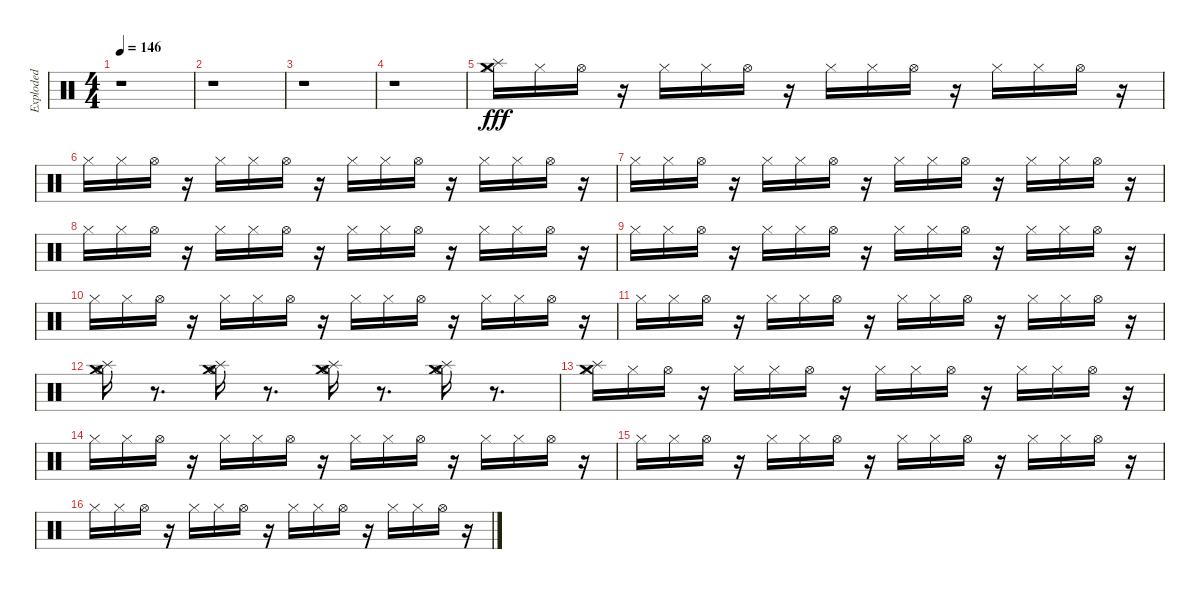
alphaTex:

\track ("Exploded" "Exploded") {instrument percussion}
\staff {score}
\articulation defaults
\ts (4 4)
\tempo 146
\clef neutral
\ks c
r.1{dy fff} |
r.1 |
r.1 |
r.1 |
("Hi-Hat (closed)" "Crash medium (hit)" "Splash (hit)").16 "Hi-Hat (closed)".16 "Hi-Hat (open)".16 r.16 "Hi-Hat (closed)".16 "Hi-Hat (closed)".16 "Hi-Hat (open)".16 r.16 "Hi-Hat (closed)".16 "Hi-Hat (closed)".16 "Hi-Hat (open)".16 r.16 "Hi-Hat (closed)".16 "Hi-Hat (closed)".16 "Hi-Hat (open)".16 r.16 |
"Hi-Hat (closed)".16 "Hi-Hat (closed)".16 "Hi-Hat (open)".16 r.16 "Hi-Hat (closed)".16 "Hi-Hat (closed)".16 "Hi-Hat (open)".16 r.16 "Hi-Hat (closed)".16 "Hi-Hat (closed)".16 "Hi-Hat (open)".16 r.16 "Hi-Hat (closed)".16 "Hi-Hat (closed)".16 "Hi-Hat (open)".16 r.16 |
"Hi-Hat (closed)".16 "Hi-Hat (closed)".16 "Hi-Hat (open)".16 r.16 "Hi-Hat (closed)".16 "Hi-Hat (closed)".16 "Hi-Hat (open)".16 r.16 "Hi-Hat (closed)".16 "Hi-Hat (closed)".16 "Hi-Hat (open)".16 r.16 "Hi-Hat (closed)".16 "Hi-Hat (closed)".16 "Hi-Hat (open)".16 r.16 |
"Hi-Hat (closed)".16 "Hi-Hat (closed)".16 "Hi-Hat (open)".16 r.16 "Hi-Hat (closed)".16 "Hi-Hat (closed)".16 "Hi-Hat (open)".16 r.16 "Hi-Hat (closed)".16 "Hi-Hat (closed)".16 "Hi-Hat (open)".16 r.16 "Hi-Hat (closed)".16 "Hi-Hat (closed)".16 "Hi-Hat (open)".16 r.16 |
"Hi-Hat (closed)".16 "Hi-Hat (closed)".16 "Hi-Hat (open)".16 r.16 "Hi-Hat (closed)".16 "Hi-Hat (closed)".16 "Hi-Hat (open)".16 r.16 "Hi-Hat (closed)".16 "Hi-Hat (closed)".16 "Hi-Hat (open)".16 r.16 "Hi-Hat (closed)".16 "Hi-Hat (closed)".16 "Hi-Hat (open)".16 r.16 |
"Hi-Hat (closed)".16 "Hi-Hat (closed)".16 "Hi-Hat (open)".16 r.16 "Hi-Hat (closed)".16 "Hi-Hat (closed)".16 "Hi-Hat (open)".16 r.16 "Hi-Hat (closed)".16 "Hi-Hat (closed)".16 "Hi-Hat (open)".16 r.16 "Hi-Hat (closed)".16 "Hi-Hat (closed)".16 "Hi-Hat (open)".16 r.16 |
"Hi-Hat (closed)".16 "Hi-Hat (closed)".16 "Hi-Hat (open)".16 r.16 "Hi-Hat (closed)".16 "Hi-Hat (closed)".16 "Hi-Hat (open)".16 r.16 "Hi-Hat (closed)".16 "Hi-Hat (closed)".16 "Hi-Hat (open)".16 r.16 "Hi-Hat (closed)".16 "Hi-Hat (closed)".16 "Hi-Hat (open)".16 r.16 |
("Crash medium (hit)" "Splash (hit)" "Hi-Hat (open)").16 r.8{d} ("Splash (hit)" "Crash medium (hit)" "Hi-Hat (open)").16 r.8{d} ("Crash medium (hit)" "Splash (hit)" "Hi-Hat (open)").16 r.8{d} ("Splash (hit)" "Crash medium (hit)" "Hi-Hat (open)").16 r.8{d} |
("Hi-Hat (closed)" "Crash medium (hit)" "Splash (hit)").16 "Hi-Hat (closed)".16 "Hi-Hat (open)".16 r.16 "Hi-Hat (closed)".16 "Hi-Hat (closed)".16 "Hi-Hat (open)".16 r.16 "Hi-Hat (closed)".16 "Hi-Hat (closed)".16 "Hi-Hat (open)".16 r.16 "Hi-Hat (closed)".16 "Hi-Hat (closed)".16 "Hi-Hat (open)".16 r.16 |
"Hi-Hat (closed)".16 "Hi-Hat (closed)".16 "Hi-Hat (open)".16 r.16 "Hi-Hat (closed)".16 "Hi-Hat (closed)".16 "Hi-Hat (open)".16 r.16 "Hi-Hat (closed)".16 "Hi-Hat (closed)".16 "Hi-Hat (open)".16 r.16 "Hi-Hat (closed)".16 "Hi-Hat (closed)".16 "Hi-Hat (open)".16 r.16 |
"Hi-Hat (closed)".16 "Hi-Hat (closed)".16 "Hi-Hat (open)".16 r.16 "Hi-Hat (closed)".16 "Hi-Hat (closed)".16 "Hi-Hat (open)".16 r.16 "Hi-Hat (closed)".16 "Hi-Hat (closed)".16 "Hi-Hat (open)".16 r.16 "Hi-Hat (closed)".16 "Hi-Hat (closed)".16 "Hi-Hat (open)".16 r.16 |
"Hi-Hat (closed)".16 "Hi-Hat (closed)".16 "Hi-Hat (open)".16 r.16 "Hi-Hat (closed)".16 "Hi-Hat (closed)".16 "Hi-Hat (open)".16 r.16 "Hi-Hat (closed)".16 "Hi-Hat (closed)".16 "Hi-Hat (open)".16 r.16 "Hi-Hat (closed)".16 "Hi-Hat (closed)".16 "Hi-Hat (open)".16 r.16
